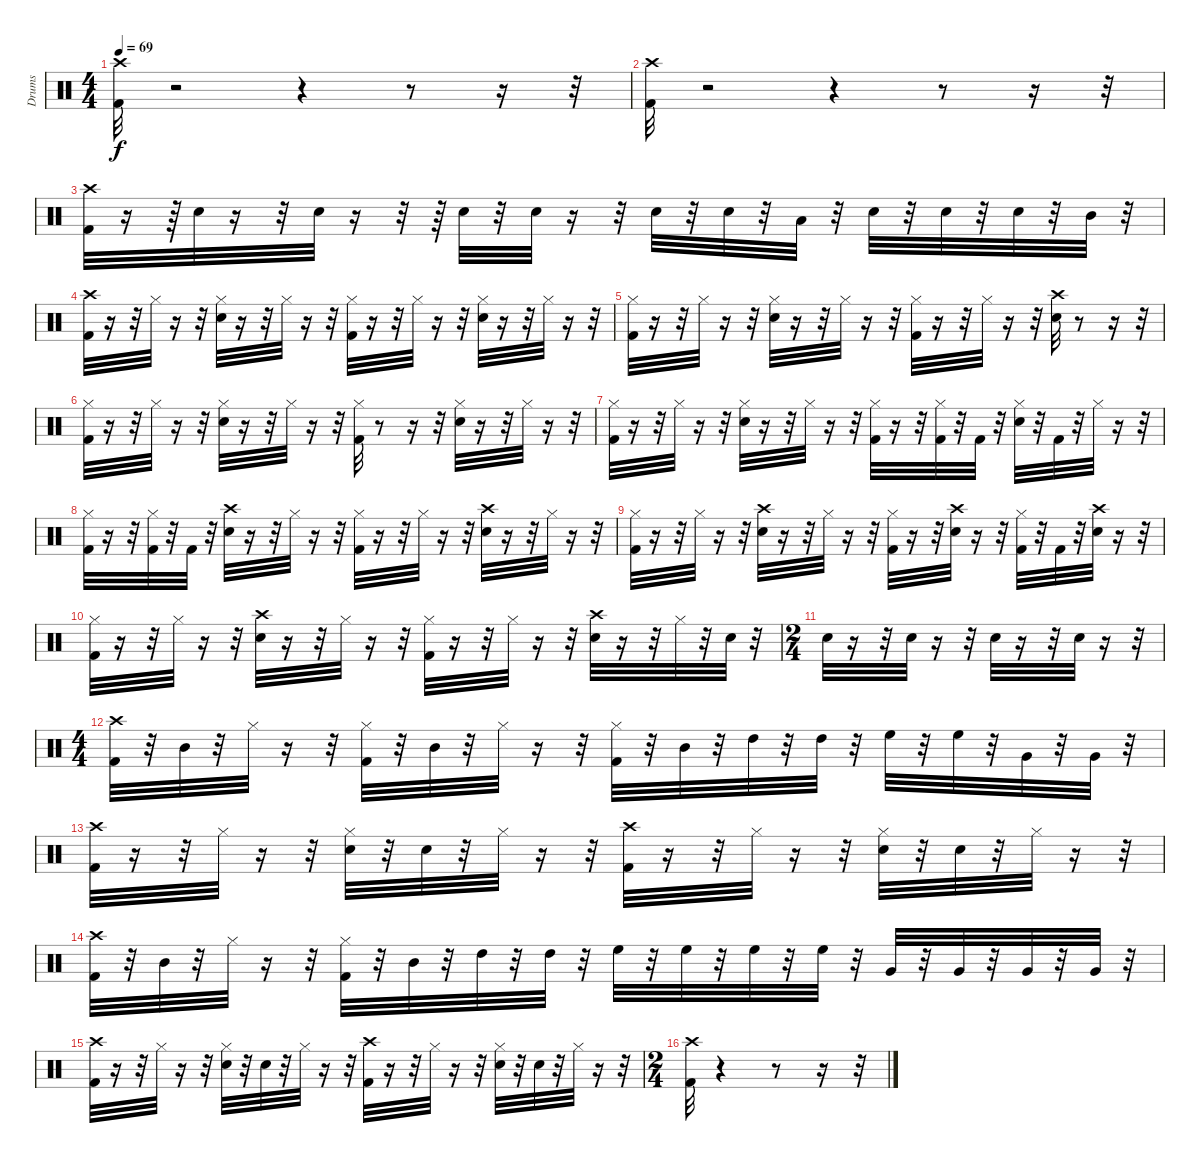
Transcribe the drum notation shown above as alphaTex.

\track ("Drums" "Drums") {instrument percussion}
\staff {score}
\articulation defaults
\ts (4 4)
\tempo 69
\clef neutral
\ks c
("Kick (hit) 2" "Crash high (hit)").32{dy f} r.2 r.4 r.8 r.16 r.32 |
("Kick (hit) 2" "Crash high (hit)").32 r.2 r.4 r.8 r.16 r.32 |
("Kick (hit) 2" "Crash high (hit)").32 r.16 r.64 "Snare (hit) 2".32 r.16 r.32 "Snare (hit) 2".32 r.16 r.32 r.64 "Snare (hit) 2".32 r.32 "Snare (hit) 2".32 r.16 r.32 "Snare (hit) 2".32 r.32 "Snare (hit) 2".32 r.32 "Low Tom (hit)".32 r.32 "Snare (hit) 2".32 r.32 "Snare (hit) 2".32 r.32 "Snare (hit) 2".32 r.32 "Mid Tom (hit)".32 r.32 |
("Kick (hit) 2" "Crash high (hit)").32 r.16 r.32 "Hi-Hat (closed)".32 r.16 r.32 ("Snare (hit) 2" "Hi-Hat (closed)").32 r.16 r.32 "Hi-Hat (closed)".32 r.16 r.32 ("Hi-Hat (closed)" "Kick (hit) 2").32 r.16 r.32 "Hi-Hat (closed)".32 r.16 r.32 ("Snare (hit) 2" "Hi-Hat (closed)").32 r.16 r.32 "Hi-Hat (closed)".32 r.16 r.32 |
("Kick (hit) 2" "Hi-Hat (closed)").32 r.16 r.32 "Hi-Hat (closed)".32 r.16 r.32 ("Snare (hit) 2" "Hi-Hat (closed)").32 r.16 r.32 "Hi-Hat (closed)".32 r.16 r.32 ("Hi-Hat (closed)" "Kick (hit) 2").32 r.16 r.32 "Hi-Hat (closed)".32 r.16 r.32 ("Crash high (hit)" "Snare (hit) 2").32 r.8 r.16 r.32 |
("Kick (hit) 2" "Hi-Hat (closed)").32 r.16 r.32 "Hi-Hat (closed)".32 r.16 r.32 ("Snare (hit) 2" "Hi-Hat (closed)").32 r.16 r.32 "Hi-Hat (closed)".32 r.16 r.32 ("Kick (hit) 2" "Hi-Hat (closed)").32 r.8 r.16 r.32 ("Snare (hit) 2" "Hi-Hat (closed)").32 r.16 r.32 "Hi-Hat (closed)".32 r.16 r.32 |
("Hi-Hat (closed)" "Kick (hit) 2").32 r.16 r.32 "Hi-Hat (closed)".32 r.16 r.32 ("Snare (hit) 2" "Hi-Hat (closed)").32 r.16 r.32 "Hi-Hat (closed)".32 r.16 r.32 ("Hi-Hat (closed)" "Kick (hit) 2").32 r.16 r.32 ("Hi-Hat (closed)" "Kick (hit) 2").32 r.32 "Kick (hit) 2".32 r.32 ("Snare (hit) 2" "Hi-Hat (closed)").32 r.32 "Kick (hit) 2".32 r.32 "Hi-Hat (closed)".32 r.16 r.32 |
("Kick (hit) 2" "Hi-Hat (closed)").32 r.16 r.32 ("Kick (hit) 2" "Hi-Hat (closed)").32 r.32 "Kick (hit) 2".32 r.32 ("Crash high (hit)" "Snare (hit) 2").32 r.16 r.32 "Hi-Hat (closed)".32 r.16 r.32 ("Hi-Hat (closed)" "Kick (hit) 2").32 r.16 r.32 "Hi-Hat (closed)".32 r.16 r.32 ("Crash high (hit)" "Snare (hit) 2").32 r.16 r.32 "Hi-Hat (closed)".32 r.16 r.32 |
("Kick (hit) 2" "Hi-Hat (closed)").32 r.16 r.32 "Hi-Hat (closed)".32 r.16 r.32 ("Crash high (hit)" "Snare (hit) 2").32 r.16 r.32 "Hi-Hat (closed)".32 r.16 r.32 ("Hi-Hat (closed)" "Kick (hit) 2").32 r.16 r.32 ("Crash high (hit)" "Snare (hit) 2").32 r.16 r.32 ("Hi-Hat (closed)" "Kick (hit) 2").32 r.32 "Kick (hit) 2".32 r.32 ("Crash high (hit)" "Snare (hit) 2").32 r.16 r.32 |
("Kick (hit) 2" "Hi-Hat (closed)").32 r.16 r.32 "Hi-Hat (closed)".32 r.16 r.32 ("Crash high (hit)" "Snare (hit) 2").32 r.16 r.32 "Hi-Hat (closed)".32 r.16 r.32 ("Hi-Hat (closed)" "Kick (hit) 2").32 r.16 r.32 "Hi-Hat (closed)".32 r.16 r.32 ("Crash high (hit)" "Snare (hit) 2").32 r.16 r.32 "Hi-Hat (closed)".32 r.32 "Snare (hit) 2".32 r.32 |
\ts (2 4)
"Snare (hit) 2".32 r.16 r.32 "Snare (hit) 2".32 r.16 r.32 "Snare (hit) 2".32 r.16 r.32 "Snare (hit) 2".32 r.16 r.32 |
\ts (4 4)
("Crash high (hit)" "Kick (hit) 2").32 r.32 "Mid Tom (hit)".32 r.32 "Hi-Hat (closed)".32 r.16 r.32 ("Hi-Hat (closed)" "Kick (hit) 2").32 r.32 "Mid Tom (hit)".32 r.32 "Hi-Hat (closed)".32 r.16 r.32 ("Hi-Hat (closed)" "Kick (hit) 2").32 r.32 "Mid Tom (hit)".32 r.32 "High Tom (hit)".32 r.32 "High Tom (hit)".32 r.32 "High Floor Tom (hit)".32 r.32 "High Floor Tom (hit)".32 r.32 "Very Low Tom (hit)".32 r.32 "Very Low Tom (hit)".32 r.32 |
("Kick (hit) 2" "Crash high (hit)").32 r.16 r.32 "Hi-Hat (closed)".32 r.16 r.32 ("Snare (hit) 2" "Hi-Hat (closed)").32 r.32 "Snare (hit) 2".32 r.32 "Hi-Hat (closed)".32 r.16 r.32 ("Crash high (hit)" "Kick (hit) 2").32 r.16 r.32 "Hi-Hat (closed)".32 r.16 r.32 ("Snare (hit) 2" "Hi-Hat (closed)").32 r.32 "Snare (hit) 2".32 r.32 "Hi-Hat (closed)".32 r.16 r.32 |
("Kick (hit) 2" "Crash high (hit)").32 r.32 "Mid Tom (hit)".32 r.32 "Hi-Hat (closed)".32 r.16 r.32 ("Hi-Hat (closed)" "Kick (hit) 2").32 r.32 "Mid Tom (hit)".32 r.32 "High Tom (hit)".32 r.32 "High Tom (hit)".32 r.32 "High Floor Tom (hit)".32 r.32 "High Floor Tom (hit)".32 r.32 "High Floor Tom (hit)".32 r.32 "High Floor Tom (hit)".32 r.32 "Very Low Tom (hit)".32 r.32 "Very Low Tom (hit)".32 r.32 "Very Low Tom (hit)".32 r.32 "Very Low Tom (hit)".32 r.32 |
("Kick (hit) 2" "Crash high (hit)").32 r.16 r.32 "Hi-Hat (closed)".32 r.16 r.32 ("Snare (hit) 2" "Hi-Hat (closed)").32 r.32 "Snare (hit) 2".32 r.32 "Hi-Hat (closed)".32 r.16 r.32 ("Crash high (hit)" "Kick (hit) 2").32 r.16 r.32 "Hi-Hat (closed)".32 r.16 r.32 ("Snare (hit) 2" "Hi-Hat (closed)").32 r.32 "Snare (hit) 2".32 r.32 "Hi-Hat (closed)".32 r.16 r.32 |
\ts (2 4)
("Kick (hit) 2" "Crash high (hit)").32 r.4 r.8 r.16 r.32
